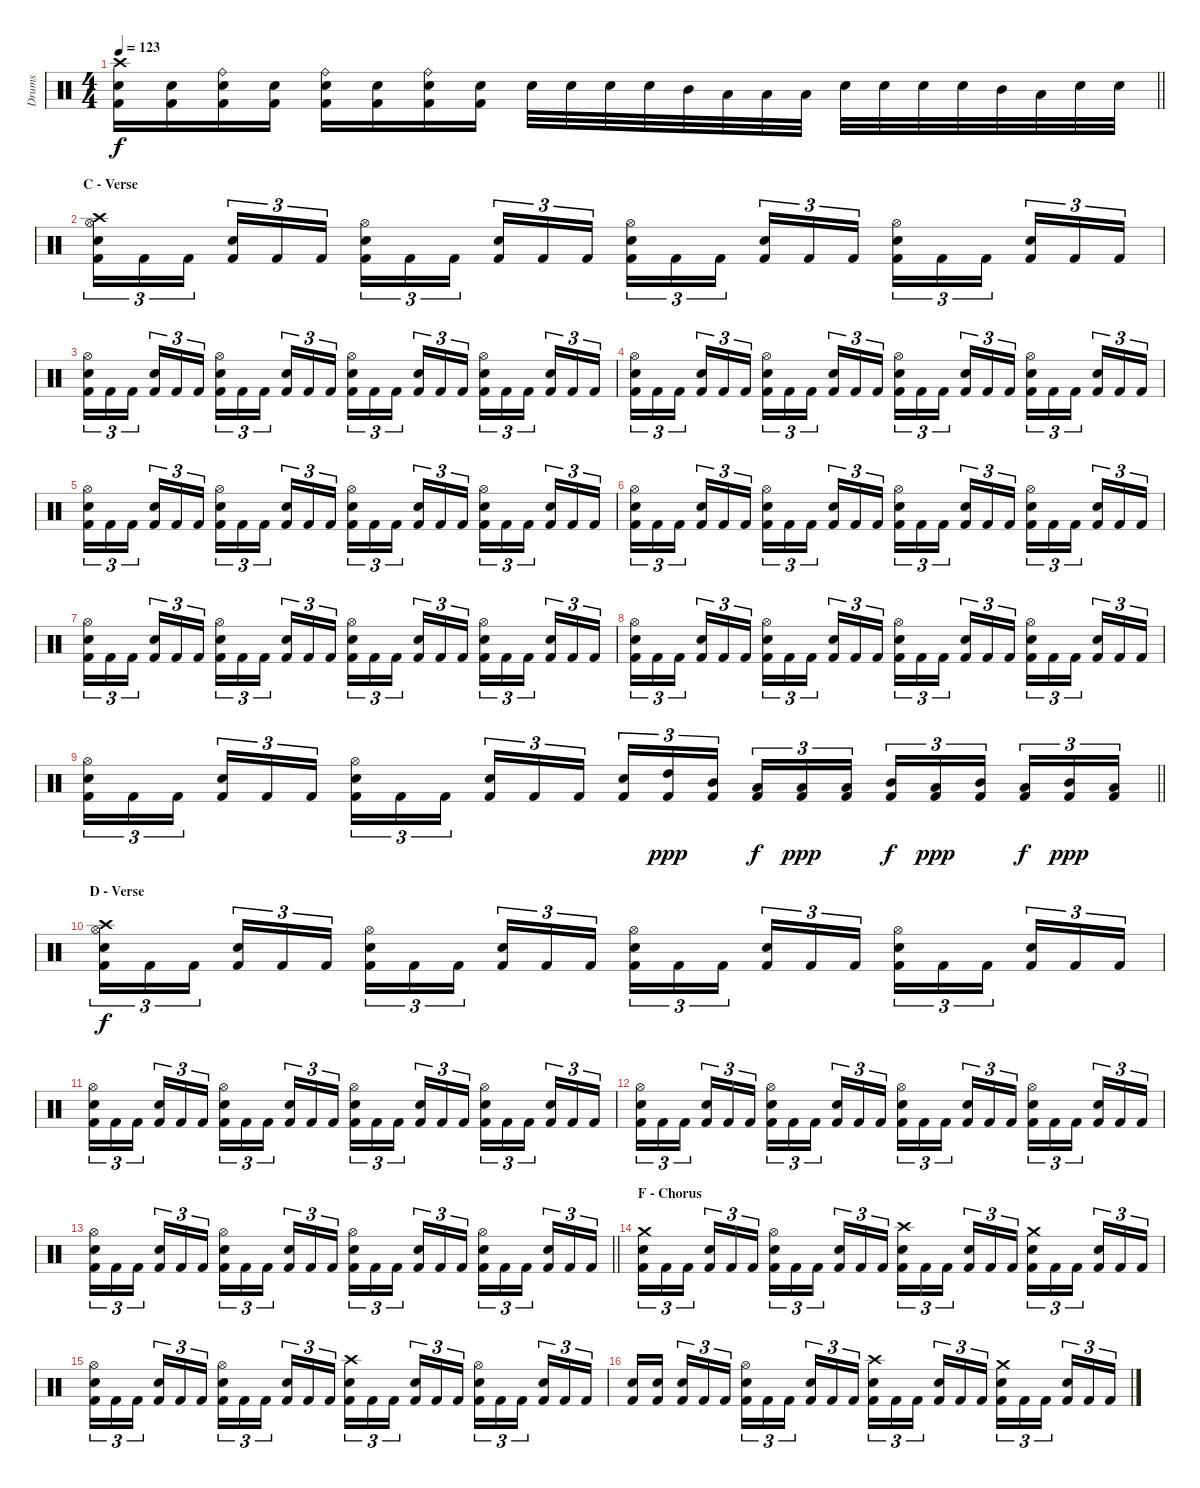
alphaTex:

\track ("Drums" "Drums") {instrument percussion}
\staff {score}
\articulation defaults
\ts (4 4)
\tempo 123
\clef neutral
\barLineRight lightlight
\ks c
("Crash high (hit)" "Snare (hit) 2" "Kick (hit) 2").16{dy f} ("Snare (hit) 2" "Kick (hit) 2").16 ("Ride (bell)" "Snare (hit) 2" "Kick (hit) 2").16 ("Snare (hit) 2" "Kick (hit) 2").16 ("Ride (bell)" "Snare (hit) 2" "Kick (hit) 2").16 ("Snare (hit) 2" "Kick (hit) 2").16 ("Ride (bell)" "Snare (hit) 2" "Kick (hit) 2").16 ("Snare (hit) 2" "Kick (hit) 2").16 "Snare (hit) 2".32 "Snare (hit) 2".32 "Snare (hit) 2".32 "Snare (hit) 2".32 "Mid Tom (hit)".32 "Low Tom (hit)".32 "Low Floor Tom (hit)".32 "Low Tom (hit)".32 "Snare (hit) 2".32 "Snare (hit) 2".32 "Snare (hit) 2".32 "Snare (hit) 2".32 "Mid Tom (hit)".32 "Low Tom (hit)".32 "Snare (hit) 2".32 "Snare (hit) 2".32 |
\section ("" "C - Verse")
("Crash high (hit)" "Hi-Hat (open)" "Snare (hit) 2" "Kick (hit) 2").16{tu (3 2)} "Kick (hit) 2".16{tu (3 2)} "Kick (hit) 2".16{tu (3 2) beam splitsecondary} ("Snare (hit) 2" "Kick (hit) 2").16{tu (3 2)} "Kick (hit) 2".16{tu (3 2)} "Kick (hit) 2".16{tu (3 2)} ("Hi-Hat (open)" "Snare (hit) 2" "Kick (hit) 2").16{tu (3 2)} "Kick (hit) 2".16{tu (3 2)} "Kick (hit) 2".16{tu (3 2) beam splitsecondary} ("Snare (hit) 2" "Kick (hit) 2").16{tu (3 2)} "Kick (hit) 2".16{tu (3 2)} "Kick (hit) 2".16{tu (3 2)} ("Hi-Hat (open)" "Snare (hit) 2" "Kick (hit) 2").16{tu (3 2)} "Kick (hit) 2".16{tu (3 2)} "Kick (hit) 2".16{tu (3 2) beam splitsecondary} ("Snare (hit) 2" "Kick (hit) 2").16{tu (3 2)} "Kick (hit) 2".16{tu (3 2)} "Kick (hit) 2".16{tu (3 2)} ("Hi-Hat (open)" "Snare (hit) 2" "Kick (hit) 2").16{tu (3 2)} "Kick (hit) 2".16{tu (3 2)} "Kick (hit) 2".16{tu (3 2) beam splitsecondary} ("Snare (hit) 2" "Kick (hit) 2").16{tu (3 2)} "Kick (hit) 2".16{tu (3 2)} "Kick (hit) 2".16{tu (3 2)} |
("Hi-Hat (open)" "Snare (hit) 2" "Kick (hit) 2").16{tu (3 2)} "Kick (hit) 2".16{tu (3 2)} "Kick (hit) 2".16{tu (3 2) beam splitsecondary} ("Snare (hit) 2" "Kick (hit) 2").16{tu (3 2)} "Kick (hit) 2".16{tu (3 2)} "Kick (hit) 2".16{tu (3 2)} ("Hi-Hat (open)" "Snare (hit) 2" "Kick (hit) 2").16{tu (3 2)} "Kick (hit) 2".16{tu (3 2)} "Kick (hit) 2".16{tu (3 2) beam splitsecondary} ("Snare (hit) 2" "Kick (hit) 2").16{tu (3 2)} "Kick (hit) 2".16{tu (3 2)} "Kick (hit) 2".16{tu (3 2)} ("Hi-Hat (open)" "Snare (hit) 2" "Kick (hit) 2").16{tu (3 2)} "Kick (hit) 2".16{tu (3 2)} "Kick (hit) 2".16{tu (3 2) beam splitsecondary} ("Snare (hit) 2" "Kick (hit) 2").16{tu (3 2)} "Kick (hit) 2".16{tu (3 2)} "Kick (hit) 2".16{tu (3 2)} ("Hi-Hat (open)" "Snare (hit) 2" "Kick (hit) 2").16{tu (3 2)} "Kick (hit) 2".16{tu (3 2)} "Kick (hit) 2".16{tu (3 2) beam splitsecondary} ("Snare (hit) 2" "Kick (hit) 2").16{tu (3 2)} "Kick (hit) 2".16{tu (3 2)} "Kick (hit) 2".16{tu (3 2)} |
("Hi-Hat (open)" "Snare (hit) 2" "Kick (hit) 2").16{tu (3 2)} "Kick (hit) 2".16{tu (3 2)} "Kick (hit) 2".16{tu (3 2) beam splitsecondary} ("Snare (hit) 2" "Kick (hit) 2").16{tu (3 2)} "Kick (hit) 2".16{tu (3 2)} "Kick (hit) 2".16{tu (3 2)} ("Hi-Hat (open)" "Snare (hit) 2" "Kick (hit) 2").16{tu (3 2)} "Kick (hit) 2".16{tu (3 2)} "Kick (hit) 2".16{tu (3 2) beam splitsecondary} ("Snare (hit) 2" "Kick (hit) 2").16{tu (3 2)} "Kick (hit) 2".16{tu (3 2)} "Kick (hit) 2".16{tu (3 2)} ("Hi-Hat (open)" "Snare (hit) 2" "Kick (hit) 2").16{tu (3 2)} "Kick (hit) 2".16{tu (3 2)} "Kick (hit) 2".16{tu (3 2) beam splitsecondary} ("Snare (hit) 2" "Kick (hit) 2").16{tu (3 2)} "Kick (hit) 2".16{tu (3 2)} "Kick (hit) 2".16{tu (3 2)} ("Hi-Hat (open)" "Snare (hit) 2" "Kick (hit) 2").16{tu (3 2)} "Kick (hit) 2".16{tu (3 2)} "Kick (hit) 2".16{tu (3 2) beam splitsecondary} ("Snare (hit) 2" "Kick (hit) 2").16{tu (3 2)} "Kick (hit) 2".16{tu (3 2)} "Kick (hit) 2".16{tu (3 2)} |
("Hi-Hat (open)" "Snare (hit) 2" "Kick (hit) 2").16{tu (3 2)} "Kick (hit) 2".16{tu (3 2)} "Kick (hit) 2".16{tu (3 2) beam splitsecondary} ("Snare (hit) 2" "Kick (hit) 2").16{tu (3 2)} "Kick (hit) 2".16{tu (3 2)} "Kick (hit) 2".16{tu (3 2)} ("Hi-Hat (open)" "Snare (hit) 2" "Kick (hit) 2").16{tu (3 2)} "Kick (hit) 2".16{tu (3 2)} "Kick (hit) 2".16{tu (3 2) beam splitsecondary} ("Snare (hit) 2" "Kick (hit) 2").16{tu (3 2)} "Kick (hit) 2".16{tu (3 2)} "Kick (hit) 2".16{tu (3 2)} ("Hi-Hat (open)" "Snare (hit) 2" "Kick (hit) 2").16{tu (3 2)} "Kick (hit) 2".16{tu (3 2)} "Kick (hit) 2".16{tu (3 2) beam splitsecondary} ("Snare (hit) 2" "Kick (hit) 2").16{tu (3 2)} "Kick (hit) 2".16{tu (3 2)} "Kick (hit) 2".16{tu (3 2)} ("Hi-Hat (open)" "Snare (hit) 2" "Kick (hit) 2").16{tu (3 2)} "Kick (hit) 2".16{tu (3 2)} "Kick (hit) 2".16{tu (3 2) beam splitsecondary} ("Snare (hit) 2" "Kick (hit) 2").16{tu (3 2)} "Kick (hit) 2".16{tu (3 2)} "Kick (hit) 2".16{tu (3 2)} |
("Hi-Hat (open)" "Snare (hit) 2" "Kick (hit) 2").16{tu (3 2)} "Kick (hit) 2".16{tu (3 2)} "Kick (hit) 2".16{tu (3 2) beam splitsecondary} ("Snare (hit) 2" "Kick (hit) 2").16{tu (3 2)} "Kick (hit) 2".16{tu (3 2)} "Kick (hit) 2".16{tu (3 2)} ("Hi-Hat (open)" "Snare (hit) 2" "Kick (hit) 2").16{tu (3 2)} "Kick (hit) 2".16{tu (3 2)} "Kick (hit) 2".16{tu (3 2) beam splitsecondary} ("Snare (hit) 2" "Kick (hit) 2").16{tu (3 2)} "Kick (hit) 2".16{tu (3 2)} "Kick (hit) 2".16{tu (3 2)} ("Hi-Hat (open)" "Snare (hit) 2" "Kick (hit) 2").16{tu (3 2)} "Kick (hit) 2".16{tu (3 2)} "Kick (hit) 2".16{tu (3 2) beam splitsecondary} ("Snare (hit) 2" "Kick (hit) 2").16{tu (3 2)} "Kick (hit) 2".16{tu (3 2)} "Kick (hit) 2".16{tu (3 2)} ("Hi-Hat (open)" "Snare (hit) 2" "Kick (hit) 2").16{tu (3 2)} "Kick (hit) 2".16{tu (3 2)} "Kick (hit) 2".16{tu (3 2) beam splitsecondary} ("Snare (hit) 2" "Kick (hit) 2").16{tu (3 2)} "Kick (hit) 2".16{tu (3 2)} "Kick (hit) 2".16{tu (3 2)} |
("Hi-Hat (open)" "Snare (hit) 2" "Kick (hit) 2").16{tu (3 2)} "Kick (hit) 2".16{tu (3 2)} "Kick (hit) 2".16{tu (3 2) beam splitsecondary} ("Snare (hit) 2" "Kick (hit) 2").16{tu (3 2)} "Kick (hit) 2".16{tu (3 2)} "Kick (hit) 2".16{tu (3 2)} ("Hi-Hat (open)" "Snare (hit) 2" "Kick (hit) 2").16{tu (3 2)} "Kick (hit) 2".16{tu (3 2)} "Kick (hit) 2".16{tu (3 2) beam splitsecondary} ("Snare (hit) 2" "Kick (hit) 2").16{tu (3 2)} "Kick (hit) 2".16{tu (3 2)} "Kick (hit) 2".16{tu (3 2)} ("Hi-Hat (open)" "Snare (hit) 2" "Kick (hit) 2").16{tu (3 2)} "Kick (hit) 2".16{tu (3 2)} "Kick (hit) 2".16{tu (3 2) beam splitsecondary} ("Snare (hit) 2" "Kick (hit) 2").16{tu (3 2)} "Kick (hit) 2".16{tu (3 2)} "Kick (hit) 2".16{tu (3 2)} ("Hi-Hat (open)" "Snare (hit) 2" "Kick (hit) 2").16{tu (3 2)} "Kick (hit) 2".16{tu (3 2)} "Kick (hit) 2".16{tu (3 2) beam splitsecondary} ("Snare (hit) 2" "Kick (hit) 2").16{tu (3 2)} "Kick (hit) 2".16{tu (3 2)} "Kick (hit) 2".16{tu (3 2)} |
("Hi-Hat (open)" "Snare (hit) 2" "Kick (hit) 2").16{tu (3 2)} "Kick (hit) 2".16{tu (3 2)} "Kick (hit) 2".16{tu (3 2) beam splitsecondary} ("Snare (hit) 2" "Kick (hit) 2").16{tu (3 2)} "Kick (hit) 2".16{tu (3 2)} "Kick (hit) 2".16{tu (3 2)} ("Hi-Hat (open)" "Snare (hit) 2" "Kick (hit) 2").16{tu (3 2)} "Kick (hit) 2".16{tu (3 2)} "Kick (hit) 2".16{tu (3 2) beam splitsecondary} ("Snare (hit) 2" "Kick (hit) 2").16{tu (3 2)} "Kick (hit) 2".16{tu (3 2)} "Kick (hit) 2".16{tu (3 2)} ("Hi-Hat (open)" "Snare (hit) 2" "Kick (hit) 2").16{tu (3 2)} "Kick (hit) 2".16{tu (3 2)} "Kick (hit) 2".16{tu (3 2) beam splitsecondary} ("Snare (hit) 2" "Kick (hit) 2").16{tu (3 2)} "Kick (hit) 2".16{tu (3 2)} "Kick (hit) 2".16{tu (3 2)} ("Hi-Hat (open)" "Snare (hit) 2" "Kick (hit) 2").16{tu (3 2)} "Kick (hit) 2".16{tu (3 2)} "Kick (hit) 2".16{tu (3 2) beam splitsecondary} ("Snare (hit) 2" "Kick (hit) 2").16{tu (3 2)} "Kick (hit) 2".16{tu (3 2)} "Kick (hit) 2".16{tu (3 2)} |
\barLineRight lightlight
("Hi-Hat (open)" "Snare (hit) 2" "Kick (hit) 2").16{tu (3 2)} "Kick (hit) 2".16{tu (3 2)} "Kick (hit) 2".16{tu (3 2) beam splitsecondary} ("Snare (hit) 2" "Kick (hit) 2").16{tu (3 2)} "Kick (hit) 2".16{tu (3 2)} "Kick (hit) 2".16{tu (3 2)} ("Hi-Hat (open)" "Snare (hit) 2" "Kick (hit) 2").16{tu (3 2)} "Kick (hit) 2".16{tu (3 2)} "Kick (hit) 2".16{tu (3 2) beam splitsecondary} ("Snare (hit) 2" "Kick (hit) 2").16{tu (3 2)} "Kick (hit) 2".16{tu (3 2)} "Kick (hit) 2".16{tu (3 2)} ("Snare (hit) 2" "Kick (hit) 2").16{tu (3 2)} ("High Tom (hit)" "Kick (hit) 2").16{tu (3 2) dy ppp} ("Mid Tom (hit)" "Kick (hit) 2").16{tu (3 2) beam splitsecondary} ("Low Tom (hit)" "Kick (hit) 2").16{tu (3 2) dy f} ("Low Floor Tom (hit)" "Kick (hit) 2").16{tu (3 2) dy ppp} ("Low Tom (hit)" "Kick (hit) 2").16{tu (3 2)} ("Mid Tom (hit)" "Kick (hit) 2").16{tu (3 2) dy f} ("Low Tom (hit)" "Kick (hit) 2").16{tu (3 2) dy ppp} ("Mid Tom (hit)" "Kick (hit) 2").16{tu (3 2) beam splitsecondary} ("Low Tom (hit)" "Kick (hit) 2").16{tu (3 2) dy f} ("Mid Tom (hit)" "Kick (hit) 2").16{tu (3 2) dy ppp} ("Low Tom (hit)" "Kick (hit) 2").16{tu (3 2)} |
\section ("" "D - Verse")
("Crash high (hit)" "Hi-Hat (open)" "Snare (hit) 2" "Kick (hit) 2").16{tu (3 2) dy f} "Kick (hit) 2".16{tu (3 2)} "Kick (hit) 2".16{tu (3 2) beam splitsecondary} ("Snare (hit) 2" "Kick (hit) 2").16{tu (3 2)} "Kick (hit) 2".16{tu (3 2)} "Kick (hit) 2".16{tu (3 2)} ("Hi-Hat (open)" "Snare (hit) 2" "Kick (hit) 2").16{tu (3 2)} "Kick (hit) 2".16{tu (3 2)} "Kick (hit) 2".16{tu (3 2) beam splitsecondary} ("Snare (hit) 2" "Kick (hit) 2").16{tu (3 2)} "Kick (hit) 2".16{tu (3 2)} "Kick (hit) 2".16{tu (3 2)} ("Hi-Hat (open)" "Snare (hit) 2" "Kick (hit) 2").16{tu (3 2)} "Kick (hit) 2".16{tu (3 2)} "Kick (hit) 2".16{tu (3 2) beam splitsecondary} ("Snare (hit) 2" "Kick (hit) 2").16{tu (3 2)} "Kick (hit) 2".16{tu (3 2)} "Kick (hit) 2".16{tu (3 2)} ("Hi-Hat (open)" "Snare (hit) 2" "Kick (hit) 2").16{tu (3 2)} "Kick (hit) 2".16{tu (3 2)} "Kick (hit) 2".16{tu (3 2) beam splitsecondary} ("Snare (hit) 2" "Kick (hit) 2").16{tu (3 2)} "Kick (hit) 2".16{tu (3 2)} "Kick (hit) 2".16{tu (3 2)} |
("Hi-Hat (open)" "Snare (hit) 2" "Kick (hit) 2").16{tu (3 2)} "Kick (hit) 2".16{tu (3 2)} "Kick (hit) 2".16{tu (3 2) beam splitsecondary} ("Snare (hit) 2" "Kick (hit) 2").16{tu (3 2)} "Kick (hit) 2".16{tu (3 2)} "Kick (hit) 2".16{tu (3 2)} ("Hi-Hat (open)" "Snare (hit) 2" "Kick (hit) 2").16{tu (3 2)} "Kick (hit) 2".16{tu (3 2)} "Kick (hit) 2".16{tu (3 2) beam splitsecondary} ("Snare (hit) 2" "Kick (hit) 2").16{tu (3 2)} "Kick (hit) 2".16{tu (3 2)} "Kick (hit) 2".16{tu (3 2)} ("Hi-Hat (open)" "Snare (hit) 2" "Kick (hit) 2").16{tu (3 2)} "Kick (hit) 2".16{tu (3 2)} "Kick (hit) 2".16{tu (3 2) beam splitsecondary} ("Snare (hit) 2" "Kick (hit) 2").16{tu (3 2)} "Kick (hit) 2".16{tu (3 2)} "Kick (hit) 2".16{tu (3 2)} ("Hi-Hat (open)" "Snare (hit) 2" "Kick (hit) 2").16{tu (3 2)} "Kick (hit) 2".16{tu (3 2)} "Kick (hit) 2".16{tu (3 2) beam splitsecondary} ("Snare (hit) 2" "Kick (hit) 2").16{tu (3 2)} "Kick (hit) 2".16{tu (3 2)} "Kick (hit) 2".16{tu (3 2)} |
("Hi-Hat (open)" "Snare (hit) 2" "Kick (hit) 2").16{tu (3 2)} "Kick (hit) 2".16{tu (3 2)} "Kick (hit) 2".16{tu (3 2) beam splitsecondary} ("Snare (hit) 2" "Kick (hit) 2").16{tu (3 2)} "Kick (hit) 2".16{tu (3 2)} "Kick (hit) 2".16{tu (3 2)} ("Hi-Hat (open)" "Snare (hit) 2" "Kick (hit) 2").16{tu (3 2)} "Kick (hit) 2".16{tu (3 2)} "Kick (hit) 2".16{tu (3 2) beam splitsecondary} ("Snare (hit) 2" "Kick (hit) 2").16{tu (3 2)} "Kick (hit) 2".16{tu (3 2)} "Kick (hit) 2".16{tu (3 2)} ("Hi-Hat (open)" "Snare (hit) 2" "Kick (hit) 2").16{tu (3 2)} "Kick (hit) 2".16{tu (3 2)} "Kick (hit) 2".16{tu (3 2) beam splitsecondary} ("Snare (hit) 2" "Kick (hit) 2").16{tu (3 2)} "Kick (hit) 2".16{tu (3 2)} "Kick (hit) 2".16{tu (3 2)} ("Hi-Hat (open)" "Snare (hit) 2" "Kick (hit) 2").16{tu (3 2)} "Kick (hit) 2".16{tu (3 2)} "Kick (hit) 2".16{tu (3 2) beam splitsecondary} ("Snare (hit) 2" "Kick (hit) 2").16{tu (3 2)} "Kick (hit) 2".16{tu (3 2)} "Kick (hit) 2".16{tu (3 2)} |
\barLineRight lightlight
("Hi-Hat (open)" "Snare (hit) 2" "Kick (hit) 2").16{tu (3 2)} "Kick (hit) 2".16{tu (3 2)} "Kick (hit) 2".16{tu (3 2) beam splitsecondary} ("Snare (hit) 2" "Kick (hit) 2").16{tu (3 2)} "Kick (hit) 2".16{tu (3 2)} "Kick (hit) 2".16{tu (3 2)} ("Hi-Hat (open)" "Snare (hit) 2" "Kick (hit) 2").16{tu (3 2)} "Kick (hit) 2".16{tu (3 2)} "Kick (hit) 2".16{tu (3 2) beam splitsecondary} ("Snare (hit) 2" "Kick (hit) 2").16{tu (3 2)} "Kick (hit) 2".16{tu (3 2)} "Kick (hit) 2".16{tu (3 2)} ("Hi-Hat (open)" "Snare (hit) 2" "Kick (hit) 2").16{tu (3 2)} "Kick (hit) 2".16{tu (3 2)} "Kick (hit) 2".16{tu (3 2) beam splitsecondary} ("Snare (hit) 2" "Kick (hit) 2").16{tu (3 2)} "Kick (hit) 2".16{tu (3 2)} "Kick (hit) 2".16{tu (3 2)} ("Hi-Hat (open)" "Snare (hit) 2" "Kick (hit) 2").16{tu (3 2)} "Kick (hit) 2".16{tu (3 2)} "Kick (hit) 2".16{tu (3 2) beam splitsecondary} ("Snare (hit) 2" "Kick (hit) 2").16{tu (3 2)} "Kick (hit) 2".16{tu (3 2)} "Kick (hit) 2".16{tu (3 2)} |
\section ("" "F - Chorus")
("Crash medium (hit)" "Snare (hit) 2" "Kick (hit) 2").16{tu (3 2)} "Kick (hit) 2".16{tu (3 2)} "Kick (hit) 2".16{tu (3 2) beam splitsecondary} ("Snare (hit) 2" "Kick (hit) 2").16{tu (3 2)} "Kick (hit) 2".16{tu (3 2)} "Kick (hit) 2".16{tu (3 2)} ("Hi-Hat (open)" "Snare (hit) 2" "Kick (hit) 2").16{tu (3 2)} "Kick (hit) 2".16{tu (3 2)} "Kick (hit) 2".16{tu (3 2) beam splitsecondary} ("Snare (hit) 2" "Kick (hit) 2").16{tu (3 2)} "Kick (hit) 2".16{tu (3 2)} "Kick (hit) 2".16{tu (3 2)} ("Crash high (hit)" "Snare (hit) 2" "Kick (hit) 2").16{tu (3 2)} "Kick (hit) 2".16{tu (3 2)} "Kick (hit) 2".16{tu (3 2) beam splitsecondary} ("Snare (hit) 2" "Kick (hit) 2").16{tu (3 2)} "Kick (hit) 2".16{tu (3 2)} "Kick (hit) 2".16{tu (3 2)} ("Crash medium (hit)" "Snare (hit) 2" "Kick (hit) 2").16{tu (3 2)} "Kick (hit) 2".16{tu (3 2)} "Kick (hit) 2".16{tu (3 2) beam splitsecondary} ("Snare (hit) 2" "Kick (hit) 2").16{tu (3 2)} "Kick (hit) 2".16{tu (3 2)} "Kick (hit) 2".16{tu (3 2)} |
("Hi-Hat (open)" "Snare (hit) 2" "Kick (hit) 2").16{tu (3 2)} "Kick (hit) 2".16{tu (3 2)} "Kick (hit) 2".16{tu (3 2) beam splitsecondary} ("Snare (hit) 2" "Kick (hit) 2").16{tu (3 2)} "Kick (hit) 2".16{tu (3 2)} "Kick (hit) 2".16{tu (3 2)} ("Hi-Hat (open)" "Snare (hit) 2" "Kick (hit) 2").16{tu (3 2)} "Kick (hit) 2".16{tu (3 2)} "Kick (hit) 2".16{tu (3 2) beam splitsecondary} ("Snare (hit) 2" "Kick (hit) 2").16{tu (3 2)} "Kick (hit) 2".16{tu (3 2)} "Kick (hit) 2".16{tu (3 2)} ("Crash high (hit)" "Snare (hit) 2" "Kick (hit) 2").16{tu (3 2)} "Kick (hit) 2".16{tu (3 2)} "Kick (hit) 2".16{tu (3 2) beam splitsecondary} ("Snare (hit) 2" "Kick (hit) 2").16{tu (3 2)} "Kick (hit) 2".16{tu (3 2)} "Kick (hit) 2".16{tu (3 2)} ("Hi-Hat (open)" "Snare (hit) 2" "Kick (hit) 2").16{tu (3 2)} "Kick (hit) 2".16{tu (3 2)} "Kick (hit) 2".16{tu (3 2) beam splitsecondary} ("Snare (hit) 2" "Kick (hit) 2").16{tu (3 2)} "Kick (hit) 2".16{tu (3 2)} "Kick (hit) 2".16{tu (3 2)} |
("Snare (hit) 2" "Kick (hit) 2").16 ("Snare (hit) 2" "Kick (hit) 2").16{beam splitsecondary} ("Snare (hit) 2" "Kick (hit) 2").16{tu (3 2)} "Kick (hit) 2".16{tu (3 2)} "Kick (hit) 2".16{tu (3 2)} ("Hi-Hat (open)" "Snare (hit) 2" "Kick (hit) 2").16{tu (3 2)} "Kick (hit) 2".16{tu (3 2)} "Kick (hit) 2".16{tu (3 2) beam splitsecondary} ("Snare (hit) 2" "Kick (hit) 2").16{tu (3 2)} "Kick (hit) 2".16{tu (3 2)} "Kick (hit) 2".16{tu (3 2)} ("Crash high (hit)" "Snare (hit) 2" "Kick (hit) 2").16{tu (3 2)} "Kick (hit) 2".16{tu (3 2)} "Kick (hit) 2".16{tu (3 2) beam splitsecondary} ("Snare (hit) 2" "Kick (hit) 2").16{tu (3 2)} "Kick (hit) 2".16{tu (3 2)} "Kick (hit) 2".16{tu (3 2)} ("Crash medium (hit)" "Snare (hit) 2" "Kick (hit) 2").16{tu (3 2)} "Kick (hit) 2".16{tu (3 2)} "Kick (hit) 2".16{tu (3 2) beam splitsecondary} ("Snare (hit) 2" "Kick (hit) 2").16{tu (3 2)} "Kick (hit) 2".16{tu (3 2)} "Kick (hit) 2".16{tu (3 2)}
